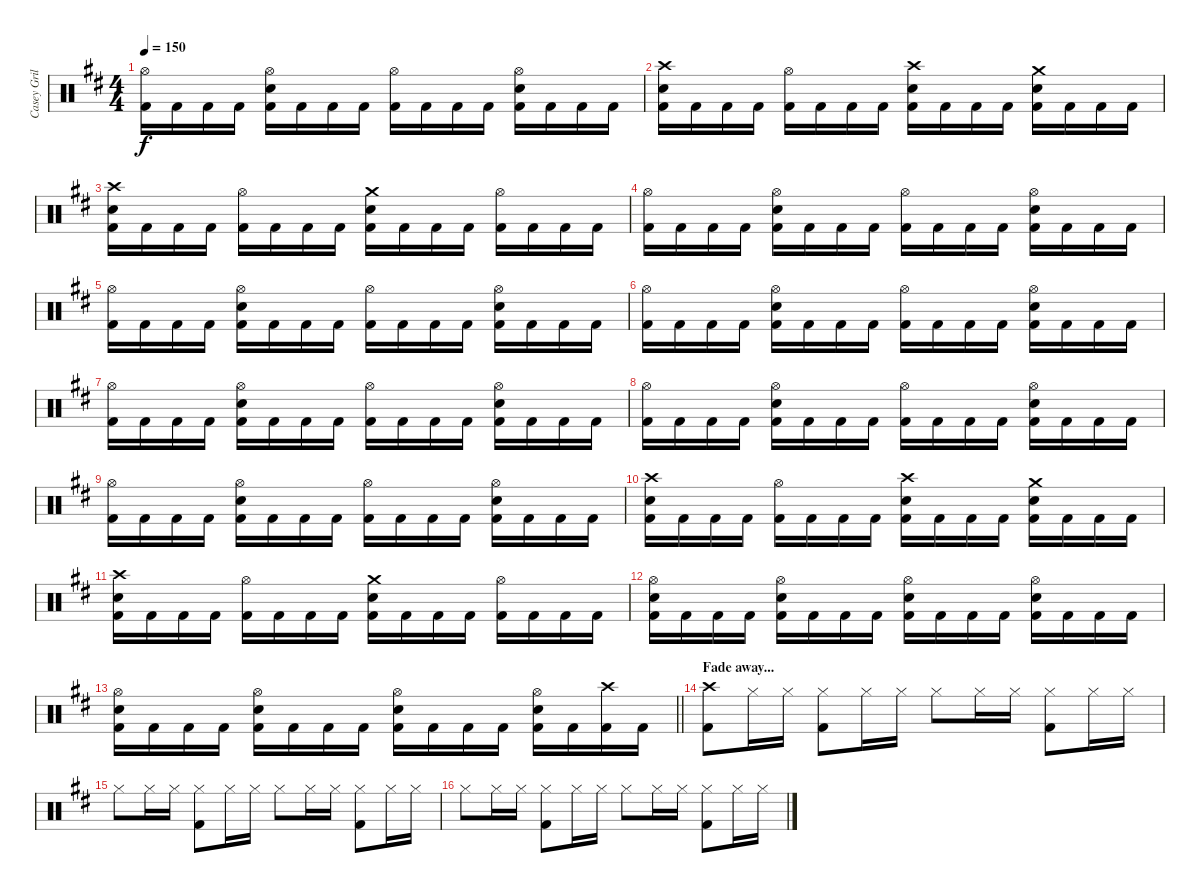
\track ("Casey Grillo" "Casey Gril") {instrument percussion}
\staff {score}
\articulation defaults
\ts (4 4)
\tempo 150
\clef neutral
\ks bminor
("Hi-Hat (open)" "Kick (hit) 2").16{dy f} "Kick (hit) 2".16 "Kick (hit) 2".16 "Kick (hit) 2".16 ("Hi-Hat (open)" "Electric Snare (hit)" "Kick (hit) 2").16 "Kick (hit) 2".16 "Kick (hit) 2".16 "Kick (hit) 2".16 ("Hi-Hat (open)" "Kick (hit) 2").16 "Kick (hit) 2".16 "Kick (hit) 2".16 "Kick (hit) 2".16 ("Hi-Hat (open)" "Electric Snare (hit)" "Kick (hit) 2").16 "Kick (hit) 2".16 "Kick (hit) 2".16 "Kick (hit) 2".16 |
("Crash high (hit)" "Electric Snare (hit)" "Kick (hit) 2").16 "Kick (hit) 2".16 "Kick (hit) 2".16 "Kick (hit) 2".16 ("Hi-Hat (open)" "Kick (hit) 2").16 "Kick (hit) 2".16 "Kick (hit) 2".16 "Kick (hit) 2".16 ("Crash high (hit)" "Electric Snare (hit)" "Kick (hit) 2").16 "Kick (hit) 2".16 "Kick (hit) 2".16 "Kick (hit) 2".16 ("Crash medium (hit)" "Electric Snare (hit)" "Kick (hit) 2").16 "Kick (hit) 2".16 "Kick (hit) 2".16 "Kick (hit) 2".16 |
("Crash high (hit)" "Electric Snare (hit)" "Kick (hit) 2").16 "Kick (hit) 2".16 "Kick (hit) 2".16 "Kick (hit) 2".16 ("Hi-Hat (open)" "Kick (hit) 2").16 "Kick (hit) 2".16 "Kick (hit) 2".16 "Kick (hit) 2".16 ("Crash medium (hit)" "Electric Snare (hit)" "Kick (hit) 2").16 "Kick (hit) 2".16 "Kick (hit) 2".16 "Kick (hit) 2".16 ("Hi-Hat (open)" "Kick (hit) 2").16 "Kick (hit) 2".16 "Kick (hit) 2".16 "Kick (hit) 2".16 |
("Hi-Hat (open)" "Kick (hit) 2").16 "Kick (hit) 2".16 "Kick (hit) 2".16 "Kick (hit) 2".16 ("Hi-Hat (open)" "Electric Snare (hit)" "Kick (hit) 2").16 "Kick (hit) 2".16 "Kick (hit) 2".16 "Kick (hit) 2".16 ("Hi-Hat (open)" "Kick (hit) 2").16 "Kick (hit) 2".16 "Kick (hit) 2".16 "Kick (hit) 2".16 ("Hi-Hat (open)" "Electric Snare (hit)" "Kick (hit) 2").16 "Kick (hit) 2".16 "Kick (hit) 2".16 "Kick (hit) 2".16 |
("Hi-Hat (open)" "Kick (hit) 2").16 "Kick (hit) 2".16 "Kick (hit) 2".16 "Kick (hit) 2".16 ("Hi-Hat (open)" "Electric Snare (hit)" "Kick (hit) 2").16 "Kick (hit) 2".16 "Kick (hit) 2".16 "Kick (hit) 2".16 ("Hi-Hat (open)" "Kick (hit) 2").16 "Kick (hit) 2".16 "Kick (hit) 2".16 "Kick (hit) 2".16 ("Hi-Hat (open)" "Electric Snare (hit)" "Kick (hit) 2").16 "Kick (hit) 2".16 "Kick (hit) 2".16 "Kick (hit) 2".16 |
("Hi-Hat (open)" "Kick (hit) 2").16 "Kick (hit) 2".16 "Kick (hit) 2".16 "Kick (hit) 2".16 ("Hi-Hat (open)" "Electric Snare (hit)" "Kick (hit) 2").16 "Kick (hit) 2".16 "Kick (hit) 2".16 "Kick (hit) 2".16 ("Hi-Hat (open)" "Kick (hit) 2").16 "Kick (hit) 2".16 "Kick (hit) 2".16 "Kick (hit) 2".16 ("Hi-Hat (open)" "Electric Snare (hit)" "Kick (hit) 2").16 "Kick (hit) 2".16 "Kick (hit) 2".16 "Kick (hit) 2".16 |
("Hi-Hat (open)" "Kick (hit) 2").16 "Kick (hit) 2".16 "Kick (hit) 2".16 "Kick (hit) 2".16 ("Hi-Hat (open)" "Electric Snare (hit)" "Kick (hit) 2").16 "Kick (hit) 2".16 "Kick (hit) 2".16 "Kick (hit) 2".16 ("Hi-Hat (open)" "Kick (hit) 2").16 "Kick (hit) 2".16 "Kick (hit) 2".16 "Kick (hit) 2".16 ("Hi-Hat (open)" "Electric Snare (hit)" "Kick (hit) 2").16 "Kick (hit) 2".16 "Kick (hit) 2".16 "Kick (hit) 2".16 |
("Hi-Hat (open)" "Kick (hit) 2").16 "Kick (hit) 2".16 "Kick (hit) 2".16 "Kick (hit) 2".16 ("Hi-Hat (open)" "Electric Snare (hit)" "Kick (hit) 2").16 "Kick (hit) 2".16 "Kick (hit) 2".16 "Kick (hit) 2".16 ("Hi-Hat (open)" "Kick (hit) 2").16 "Kick (hit) 2".16 "Kick (hit) 2".16 "Kick (hit) 2".16 ("Hi-Hat (open)" "Electric Snare (hit)" "Kick (hit) 2").16 "Kick (hit) 2".16 "Kick (hit) 2".16 "Kick (hit) 2".16 |
("Hi-Hat (open)" "Kick (hit) 2").16 "Kick (hit) 2".16 "Kick (hit) 2".16 "Kick (hit) 2".16 ("Hi-Hat (open)" "Electric Snare (hit)" "Kick (hit) 2").16 "Kick (hit) 2".16 "Kick (hit) 2".16 "Kick (hit) 2".16 ("Hi-Hat (open)" "Kick (hit) 2").16 "Kick (hit) 2".16 "Kick (hit) 2".16 "Kick (hit) 2".16 ("Hi-Hat (open)" "Electric Snare (hit)" "Kick (hit) 2").16 "Kick (hit) 2".16 "Kick (hit) 2".16 "Kick (hit) 2".16 |
("Crash high (hit)" "Electric Snare (hit)" "Kick (hit) 2").16 "Kick (hit) 2".16 "Kick (hit) 2".16 "Kick (hit) 2".16 ("Hi-Hat (open)" "Kick (hit) 2").16 "Kick (hit) 2".16 "Kick (hit) 2".16 "Kick (hit) 2".16 ("Crash high (hit)" "Electric Snare (hit)" "Kick (hit) 2").16 "Kick (hit) 2".16 "Kick (hit) 2".16 "Kick (hit) 2".16 ("Crash medium (hit)" "Electric Snare (hit)" "Kick (hit) 2").16 "Kick (hit) 2".16 "Kick (hit) 2".16 "Kick (hit) 2".16 |
("Crash high (hit)" "Electric Snare (hit)" "Kick (hit) 2").16 "Kick (hit) 2".16 "Kick (hit) 2".16 "Kick (hit) 2".16 ("Hi-Hat (open)" "Kick (hit) 2").16 "Kick (hit) 2".16 "Kick (hit) 2".16 "Kick (hit) 2".16 ("Crash medium (hit)" "Electric Snare (hit)" "Kick (hit) 2").16 "Kick (hit) 2".16 "Kick (hit) 2".16 "Kick (hit) 2".16 ("Hi-Hat (open)" "Kick (hit) 2").16 "Kick (hit) 2".16 "Kick (hit) 2".16 "Kick (hit) 2".16 |
("Hi-Hat (open)" "Electric Snare (hit)" "Kick (hit) 2").16 "Kick (hit) 2".16 "Kick (hit) 2".16 "Kick (hit) 2".16 ("Hi-Hat (open)" "Electric Snare (hit)" "Kick (hit) 2").16 "Kick (hit) 2".16 "Kick (hit) 2".16 "Kick (hit) 2".16 ("Hi-Hat (open)" "Electric Snare (hit)" "Kick (hit) 2").16 "Kick (hit) 2".16 "Kick (hit) 2".16 "Kick (hit) 2".16 ("Hi-Hat (open)" "Electric Snare (hit)" "Kick (hit) 2").16 "Kick (hit) 2".16 "Kick (hit) 2".16 "Kick (hit) 2".16 |
\barLineRight lightlight
("Hi-Hat (open)" "Electric Snare (hit)" "Kick (hit) 2").16 "Kick (hit) 2".16 "Kick (hit) 2".16 "Kick (hit) 2".16 ("Hi-Hat (open)" "Electric Snare (hit)" "Kick (hit) 2").16 "Kick (hit) 2".16 "Kick (hit) 2".16 "Kick (hit) 2".16 ("Hi-Hat (open)" "Electric Snare (hit)" "Kick (hit) 2").16 "Kick (hit) 2".16 "Kick (hit) 2".16 "Kick (hit) 2".16 ("Hi-Hat (open)" "Electric Snare (hit)" "Kick (hit) 2").16 "Kick (hit) 2".16 ("Crash high (hit)" "Kick (hit) 2").16 "Kick (hit) 2".16 |
\section ("" "Fade away...")
("Crash high (hit)" "Kick (hit) 2").8 "Hi-Hat (closed)".16 "Hi-Hat (closed)".16 ("Hi-Hat (closed)" "Kick (hit) 2").8 "Hi-Hat (closed)".16 "Hi-Hat (closed)".16 "Hi-Hat (closed)".8 "Hi-Hat (closed)".16 "Hi-Hat (closed)".16 ("Hi-Hat (closed)" "Kick (hit) 2").8 "Hi-Hat (closed)".16 "Hi-Hat (closed)".16 |
"Hi-Hat (closed)".8 "Hi-Hat (closed)".16 "Hi-Hat (closed)".16 ("Hi-Hat (closed)" "Kick (hit) 2").8 "Hi-Hat (closed)".16 "Hi-Hat (closed)".16 "Hi-Hat (closed)".8 "Hi-Hat (closed)".16 "Hi-Hat (closed)".16 ("Hi-Hat (closed)" "Kick (hit) 2").8 "Hi-Hat (closed)".16 "Hi-Hat (closed)".16 |
"Hi-Hat (closed)".8 "Hi-Hat (closed)".16 "Hi-Hat (closed)".16 ("Hi-Hat (closed)" "Kick (hit) 2").8 "Hi-Hat (closed)".16 "Hi-Hat (closed)".16 "Hi-Hat (closed)".8 "Hi-Hat (closed)".16 "Hi-Hat (closed)".16 ("Hi-Hat (closed)" "Kick (hit) 2").8 "Hi-Hat (closed)".16 "Hi-Hat (closed)".16
